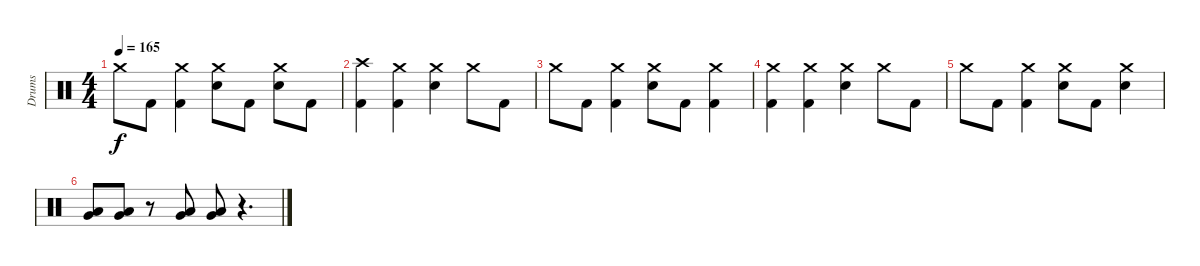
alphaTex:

\track ("Drums" "Drums") {instrument percussion}
\staff {score}
\articulation defaults
\ts (4 4)
\tempo 165
\clef neutral
\ks c "Crash medium (hit)".8{dy f} "Kick (hit) 2".8
("Crash medium (hit)" "Kick (hit) 2").4 ("Crash medium (hit)" "Electric Snare (hit)").8 "Kick (hit) 2".8 ("Crash medium (hit)" "Electric Snare (hit)").8 "Kick (hit) 2".8 |
("Crash high (hit)" "Kick (hit) 2").4 ("Crash medium (hit)" "Kick (hit) 2").4 ("Crash medium (hit)" "Electric Snare (hit)").4 "Crash medium (hit)".8 "Kick (hit) 2".8 |
"Crash medium (hit)".8 "Kick (hit) 2".8 ("Crash medium (hit)" "Kick (hit) 2").4 ("Crash medium (hit)" "Electric Snare (hit)").8 "Kick (hit) 2".8 ("Crash medium (hit)" "Kick (hit) 2").4 |
("Crash medium (hit)" "Kick (hit) 2").4 ("Crash medium (hit)" "Kick (hit) 2").4 ("Crash medium (hit)" "Electric Snare (hit)").4 "Crash medium (hit)".8 "Kick (hit) 2".8 |
"Crash medium (hit)".8 "Kick (hit) 2".8 ("Crash medium (hit)" "Kick (hit) 2").4 ("Crash medium (hit)" "Electric Snare (hit)").8 "Kick (hit) 2".8 ("Crash medium (hit)" "Electric Snare (hit)").4 |
("Very Low Tom (hit)" "Low Floor Tom (hit)").8 ("Very Low Tom (hit)" "Low Floor Tom (hit)").8 r.8 ("Very Low Tom (hit)" "Low Floor Tom (hit)").8 ("Very Low Tom (hit)" "Low Floor Tom (hit)").8 r.4{d}
